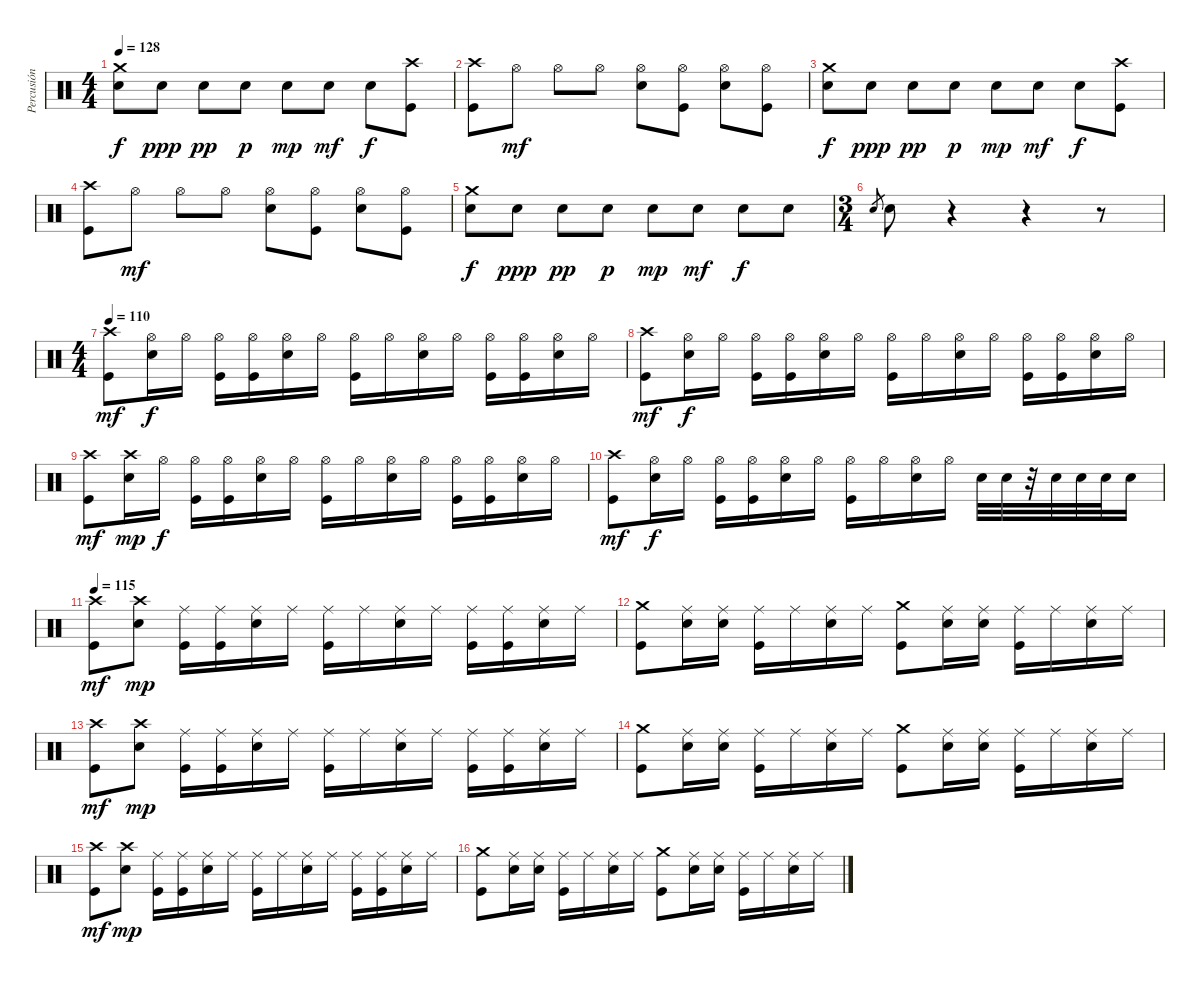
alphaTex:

\track ("Percusión" "Percusión") {instrument percussion}
\staff {score}
\articulation defaults
\ts (4 4)
\tempo 128
\clef neutral
\ks c
("Snare (hit) 2" "Crash medium (hit)").8{dy f} "Snare (hit) 2".8{dy ppp} "Snare (hit) 2".8{dy pp} "Snare (hit) 2".8{dy p} "Snare (hit) 2".8{dy mp} "Snare (hit) 2".8{dy mf} "Snare (hit) 2".8{dy f} ("Kick (hit)" "Crash high (hit)").8 |
("Kick (hit)" "Crash high (hit)").8 "Hi-Hat (open)".8{dy mf} "Hi-Hat (open)".8 "Hi-Hat (open)".8 ("Snare (hit) 2" "Hi-Hat (open)").8 ("Kick (hit)" "Hi-Hat (open)").8 ("Snare (hit) 2" "Hi-Hat (open)").8 ("Kick (hit)" "Hi-Hat (open)").8 |
("Snare (hit) 2" "Crash medium (hit)").8{dy f} "Snare (hit) 2".8{dy ppp} "Snare (hit) 2".8{dy pp} "Snare (hit) 2".8{dy p} "Snare (hit) 2".8{dy mp} "Snare (hit) 2".8{dy mf} "Snare (hit) 2".8{dy f} ("Kick (hit)" "Crash high (hit)").8 |
("Kick (hit)" "Crash high (hit)").8 "Hi-Hat (open)".8{dy mf} "Hi-Hat (open)".8 "Hi-Hat (open)".8 ("Snare (hit) 2" "Hi-Hat (open)").8 ("Kick (hit)" "Hi-Hat (open)").8 ("Snare (hit) 2" "Hi-Hat (open)").8 ("Kick (hit)" "Hi-Hat (open)").8 |
("Snare (hit) 2" "Crash medium (hit)").8{dy f} "Snare (hit) 2".8{dy ppp} "Snare (hit) 2".8{dy pp} "Snare (hit) 2".8{dy p} "Snare (hit) 2".8{dy mp} "Snare (hit) 2".8{dy mf} "Snare (hit) 2".8{dy f} "Snare (hit) 2".8 |
\ts (3 4)
"Snare (hit) 2".8{gr} "Snare (hit) 2".8 r.4 r.4 r.8 |
\ts (4 4)
\tempo 110
("Kick (hit)" "Crash high (hit)").8{dy mf} ("Snare (hit) 2" "Hi-Hat (open)").16{dy f} "Hi-Hat (open)".16 ("Kick (hit)" "Hi-Hat (open)").16 ("Kick (hit)" "Hi-Hat (open)").16 ("Snare (hit) 2" "Hi-Hat (open)").16 "Hi-Hat (open)".16 ("Kick (hit)" "Hi-Hat (open)").16 "Hi-Hat (open)".16 ("Snare (hit) 2" "Hi-Hat (open)").16 "Hi-Hat (open)".16 ("Kick (hit)" "Hi-Hat (open)").16 ("Kick (hit)" "Hi-Hat (open)").16 ("Snare (hit) 2" "Hi-Hat (open)").16 "Hi-Hat (open)".16 |
("Kick (hit)" "Crash high (hit)").8{dy mf} ("Snare (hit) 2" "Hi-Hat (open)").16{dy f} "Hi-Hat (open)".16 ("Kick (hit)" "Hi-Hat (open)").16 ("Kick (hit)" "Hi-Hat (open)").16 ("Snare (hit) 2" "Hi-Hat (open)").16 "Hi-Hat (open)".16 ("Kick (hit)" "Hi-Hat (open)").16 "Hi-Hat (open)".16 ("Snare (hit) 2" "Hi-Hat (open)").16 "Hi-Hat (open)".16 ("Kick (hit)" "Hi-Hat (open)").16 ("Kick (hit)" "Hi-Hat (open)").16 ("Snare (hit) 2" "Hi-Hat (open)").16 "Hi-Hat (open)".16 |
("Kick (hit)" "Crash high (hit)").8{dy mf} ("Snare (hit) 2" "Crash high (hit)").16{dy mp} "Hi-Hat (open)".16{dy f} ("Kick (hit)" "Hi-Hat (open)").16 ("Kick (hit)" "Hi-Hat (open)").16 ("Snare (hit) 2" "Hi-Hat (open)").16 "Hi-Hat (open)".16 ("Kick (hit)" "Hi-Hat (open)").16 "Hi-Hat (open)".16 ("Snare (hit) 2" "Hi-Hat (open)").16 "Hi-Hat (open)".16 ("Kick (hit)" "Hi-Hat (open)").16 ("Kick (hit)" "Hi-Hat (open)").16 ("Snare (hit) 2" "Hi-Hat (open)").16 "Hi-Hat (open)".16 |
("Kick (hit)" "Crash high (hit)").8{dy mf} ("Snare (hit) 2" "Hi-Hat (open)").16{dy f} "Hi-Hat (open)".16 ("Kick (hit)" "Hi-Hat (open)").16 ("Kick (hit)" "Hi-Hat (open)").16 ("Snare (hit) 2" "Hi-Hat (open)").16 "Hi-Hat (open)".16 ("Kick (hit)" "Hi-Hat (open)").16 "Hi-Hat (open)".16 ("Snare (hit) 2" "Hi-Hat (open)").16 "Hi-Hat (open)".16 "Snare (hit) 2".32 "Snare (hit) 2".32 r.32 "Snare (hit) 2".32 "Snare (hit) 2".32 "Snare (hit) 2".32 "Snare (hit) 2".16 |
\tempo 115
("Kick (hit)" "Crash high (hit)").8{dy mf} ("Snare (hit) 2" "Crash high (hit)").8{dy mp} ("Kick (hit)" "Ride (middle)").16 ("Kick (hit)" "Ride (middle)").16 ("Snare (hit) 2" "Ride (middle)").16 "Ride (middle)".16 ("Kick (hit)" "Ride (middle)").16 "Ride (middle)".16 ("Snare (hit) 2" "Ride (middle)").16 "Ride (middle)".16 ("Kick (hit)" "Ride (middle)").16 ("Kick (hit)" "Ride (middle)").16 ("Snare (hit) 2" "Ride (middle)").16 "Ride (middle)".16 |
("Kick (hit)" "Crash medium (hit)").8 ("Snare (hit) 2" "Ride (middle)").16 ("Snare (hit) 2" "Ride (middle)").16 ("Kick (hit)" "Ride (middle)").16 "Ride (middle)".16 ("Snare (hit) 2" "Ride (middle)").16 "Ride (middle)".16 ("Kick (hit)" "Crash medium (hit)").8 ("Snare (hit) 2" "Ride (middle)").16 ("Snare (hit) 2" "Ride (middle)").16 ("Kick (hit)" "Ride (middle)").16 "Ride (middle)".16 ("Snare (hit) 2" "Ride (middle)").16 "Ride (middle)".16 |
("Kick (hit)" "Crash high (hit)").8{dy mf} ("Snare (hit) 2" "Crash high (hit)").8{dy mp} ("Kick (hit)" "Ride (middle)").16 ("Kick (hit)" "Ride (middle)").16 ("Snare (hit) 2" "Ride (middle)").16 "Ride (middle)".16 ("Kick (hit)" "Ride (middle)").16 "Ride (middle)".16 ("Snare (hit) 2" "Ride (middle)").16 "Ride (middle)".16 ("Kick (hit)" "Ride (middle)").16 ("Kick (hit)" "Ride (middle)").16 ("Snare (hit) 2" "Ride (middle)").16 "Ride (middle)".16 |
("Kick (hit)" "Crash medium (hit)").8 ("Snare (hit) 2" "Ride (middle)").16 ("Snare (hit) 2" "Ride (middle)").16 ("Kick (hit)" "Ride (middle)").16 "Ride (middle)".16 ("Snare (hit) 2" "Ride (middle)").16 "Ride (middle)".16 ("Kick (hit)" "Crash medium (hit)").8 ("Snare (hit) 2" "Ride (middle)").16 ("Snare (hit) 2" "Ride (middle)").16 ("Kick (hit)" "Ride (middle)").16 "Ride (middle)".16 ("Snare (hit) 2" "Ride (middle)").16 "Ride (middle)".16 |
("Kick (hit)" "Crash high (hit)").8{dy mf} ("Snare (hit) 2" "Crash high (hit)").8{dy mp} ("Kick (hit)" "Ride (middle)").16 ("Kick (hit)" "Ride (middle)").16 ("Snare (hit) 2" "Ride (middle)").16 "Ride (middle)".16 ("Kick (hit)" "Ride (middle)").16 "Ride (middle)".16 ("Snare (hit) 2" "Ride (middle)").16 "Ride (middle)".16 ("Kick (hit)" "Ride (middle)").16 ("Kick (hit)" "Ride (middle)").16 ("Snare (hit) 2" "Ride (middle)").16 "Ride (middle)".16 |
("Kick (hit)" "Crash medium (hit)").8 ("Snare (hit) 2" "Ride (middle)").16 ("Snare (hit) 2" "Ride (middle)").16 ("Kick (hit)" "Ride (middle)").16 "Ride (middle)".16 ("Snare (hit) 2" "Ride (middle)").16 "Ride (middle)".16 ("Kick (hit)" "Crash medium (hit)").8 ("Snare (hit) 2" "Ride (middle)").16 ("Snare (hit) 2" "Ride (middle)").16 ("Kick (hit)" "Ride (middle)").16 "Ride (middle)".16 ("Snare (hit) 2" "Ride (middle)").16 "Ride (middle)".16
